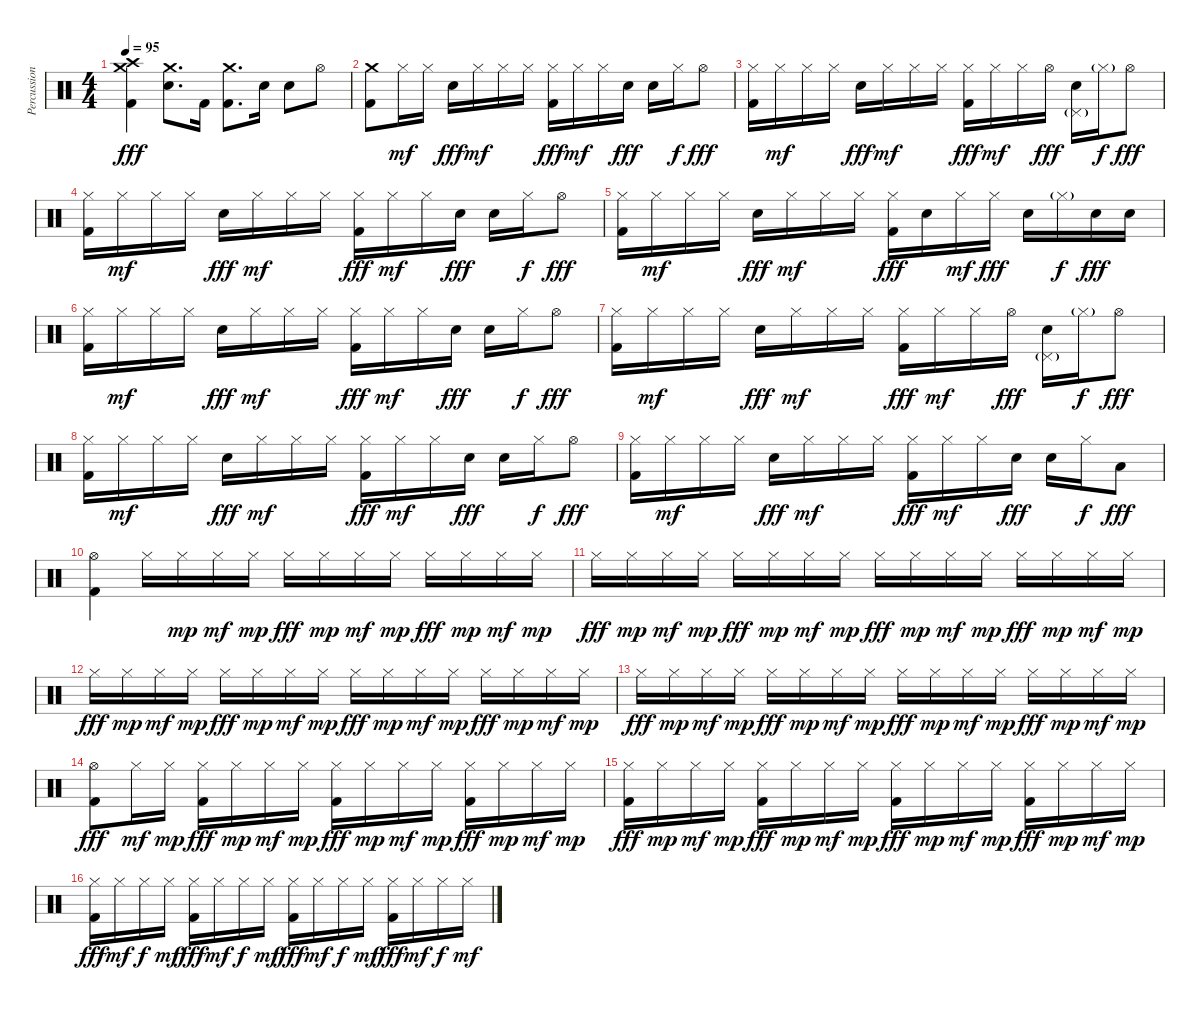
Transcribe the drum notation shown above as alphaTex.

\track ("Percussion" "Percussion") {instrument percussion}
\staff {score}
\articulation defaults
\ts (4 4)
\tempo 95
\clef neutral
\ks c
("Crash high (hit)" "Crash medium (hit)" "Kick (hit) 2").4{dy fff} ("Crash medium (hit)" "Electric Snare (hit)").8{d} "Kick (hit) 2".16 ("Crash medium (hit)" "Kick (hit) 2").8{d} "Electric Snare (hit)".16 "Electric Snare (hit)".8 "Hi-Hat (open)".8 |
("Crash medium (hit)" "Kick (hit) 2").8 "Hi-Hat (closed)".16{dy mf} "Hi-Hat (closed)".16 "Electric Snare (hit)".16{dy fff} "Hi-Hat (closed)".16{dy mf} "Hi-Hat (closed)".16 "Hi-Hat (closed)".16 ("Hi-Hat (closed)" "Kick (hit) 2").16{dy fff} "Hi-Hat (closed)".16{dy mf} "Hi-Hat (closed)".16 "Electric Snare (hit)".16{dy fff} "Electric Snare (hit)".16 "Hi-Hat (closed)".16{dy f} "Hi-Hat (open)".8{dy fff} |
("Hi-Hat (closed)" "Kick (hit) 2").16 "Hi-Hat (closed)".16{dy mf} "Hi-Hat (closed)".16 "Hi-Hat (closed)".16 "Electric Snare (hit)".16{dy fff} "Hi-Hat (closed)".16{dy mf} "Hi-Hat (closed)".16 "Hi-Hat (closed)".16 ("Hi-Hat (closed)" "Kick (hit) 2").16{dy fff} "Hi-Hat (closed)".16{dy mf} "Hi-Hat (closed)".16 "Hi-Hat (open)".16{dy fff} ("Pedal Hi-Hat (hit)"{g} "Electric Snare (hit)").16 "Hi-Hat (closed)"{g}.16{dy f} "Hi-Hat (open)".8{dy fff} |
("Hi-Hat (closed)" "Kick (hit) 2").16 "Hi-Hat (closed)".16{dy mf} "Hi-Hat (closed)".16 "Hi-Hat (closed)".16 "Electric Snare (hit)".16{dy fff} "Hi-Hat (closed)".16{dy mf} "Hi-Hat (closed)".16 "Hi-Hat (closed)".16 ("Hi-Hat (closed)" "Kick (hit) 2").16{dy fff} "Hi-Hat (closed)".16{dy mf} "Hi-Hat (closed)".16 "Electric Snare (hit)".16{dy fff} "Electric Snare (hit)".16 "Hi-Hat (closed)".16{dy f} "Hi-Hat (open)".8{dy fff} |
("Hi-Hat (closed)" "Kick (hit) 2").16 "Hi-Hat (closed)".16{dy mf} "Hi-Hat (closed)".16 "Hi-Hat (closed)".16 "Electric Snare (hit)".16{dy fff} "Hi-Hat (closed)".16{dy mf} "Hi-Hat (closed)".16 "Hi-Hat (closed)".16 ("Hi-Hat (closed)" "Kick (hit) 2").16{dy fff} "Electric Snare (hit)".16 "Hi-Hat (closed)".16{dy mf} "Hi-Hat (closed)".16{dy fff} "Electric Snare (hit)".16 "Hi-Hat (closed)"{g}.16{dy f} "Electric Snare (hit)".16{dy fff} "Electric Snare (hit)".16 |
("Hi-Hat (closed)" "Kick (hit) 2").16 "Hi-Hat (closed)".16{dy mf} "Hi-Hat (closed)".16 "Hi-Hat (closed)".16 "Electric Snare (hit)".16{dy fff} "Hi-Hat (closed)".16{dy mf} "Hi-Hat (closed)".16 "Hi-Hat (closed)".16 ("Hi-Hat (closed)" "Kick (hit) 2").16{dy fff} "Hi-Hat (closed)".16{dy mf} "Hi-Hat (closed)".16 "Electric Snare (hit)".16{dy fff} "Electric Snare (hit)".16 "Hi-Hat (closed)".16{dy f} "Hi-Hat (open)".8{dy fff} |
("Hi-Hat (closed)" "Kick (hit) 2").16 "Hi-Hat (closed)".16{dy mf} "Hi-Hat (closed)".16 "Hi-Hat (closed)".16 "Electric Snare (hit)".16{dy fff} "Hi-Hat (closed)".16{dy mf} "Hi-Hat (closed)".16 "Hi-Hat (closed)".16 ("Hi-Hat (closed)" "Kick (hit) 2").16{dy fff} "Hi-Hat (closed)".16{dy mf} "Hi-Hat (closed)".16 "Hi-Hat (open)".16{dy fff} ("Pedal Hi-Hat (hit)"{g} "Electric Snare (hit)").16 "Hi-Hat (closed)"{g}.16{dy f} "Hi-Hat (open)".8{dy fff} |
("Hi-Hat (closed)" "Kick (hit) 2").16 "Hi-Hat (closed)".16{dy mf} "Hi-Hat (closed)".16 "Hi-Hat (closed)".16 "Electric Snare (hit)".16{dy fff} "Hi-Hat (closed)".16{dy mf} "Hi-Hat (closed)".16 "Hi-Hat (closed)".16 ("Hi-Hat (closed)" "Kick (hit) 2").16{dy fff} "Hi-Hat (closed)".16{dy mf} "Hi-Hat (closed)".16 "Electric Snare (hit)".16{dy fff} "Electric Snare (hit)".16 "Hi-Hat (closed)".16{dy f} "Hi-Hat (open)".8{dy fff} |
("Hi-Hat (closed)" "Kick (hit) 2").16 "Hi-Hat (closed)".16{dy mf} "Hi-Hat (closed)".16 "Hi-Hat (closed)".16 "Electric Snare (hit)".16{dy fff} "Hi-Hat (closed)".16{dy mf} "Hi-Hat (closed)".16 "Hi-Hat (closed)".16 ("Hi-Hat (closed)" "Kick (hit) 2").16{dy fff} "Hi-Hat (closed)".16{dy mf} "Hi-Hat (closed)".16 "Electric Snare (hit)".16{dy fff} "Electric Snare (hit)".16 "Hi-Hat (closed)".16{dy f} "Low Tom (hit)".8{dy fff} |
("Hi-Hat (open)" "Kick (hit) 2").4 "Hi-Hat (closed)".16 "Hi-Hat (closed)".16{dy mp} "Hi-Hat (closed)".16{dy mf} "Hi-Hat (closed)".16{dy mp} "Hi-Hat (closed)".16{dy fff} "Hi-Hat (closed)".16{dy mp} "Hi-Hat (closed)".16{dy mf} "Hi-Hat (closed)".16{dy mp} "Hi-Hat (closed)".16{dy fff} "Hi-Hat (closed)".16{dy mp} "Hi-Hat (closed)".16{dy mf} "Hi-Hat (closed)".16{dy mp} |
"Hi-Hat (closed)".16{dy fff} "Hi-Hat (closed)".16{dy mp} "Hi-Hat (closed)".16{dy mf} "Hi-Hat (closed)".16{dy mp} "Hi-Hat (closed)".16{dy fff} "Hi-Hat (closed)".16{dy mp} "Hi-Hat (closed)".16{dy mf} "Hi-Hat (closed)".16{dy mp} "Hi-Hat (closed)".16{dy fff} "Hi-Hat (closed)".16{dy mp} "Hi-Hat (closed)".16{dy mf} "Hi-Hat (closed)".16{dy mp} "Hi-Hat (closed)".16{dy fff} "Hi-Hat (closed)".16{dy mp} "Hi-Hat (closed)".16{dy mf} "Hi-Hat (closed)".16{dy mp} |
"Hi-Hat (closed)".16{dy fff} "Hi-Hat (closed)".16{dy mp} "Hi-Hat (closed)".16{dy mf} "Hi-Hat (closed)".16{dy mp} "Hi-Hat (closed)".16{dy fff} "Hi-Hat (closed)".16{dy mp} "Hi-Hat (closed)".16{dy mf} "Hi-Hat (closed)".16{dy mp} "Hi-Hat (closed)".16{dy fff} "Hi-Hat (closed)".16{dy mp} "Hi-Hat (closed)".16{dy mf} "Hi-Hat (closed)".16{dy mp} "Hi-Hat (closed)".16{dy fff} "Hi-Hat (closed)".16{dy mp} "Hi-Hat (closed)".16{dy mf} "Hi-Hat (closed)".16{dy mp} |
"Hi-Hat (closed)".16{dy fff} "Hi-Hat (closed)".16{dy mp} "Hi-Hat (closed)".16{dy mf} "Hi-Hat (closed)".16{dy mp} "Hi-Hat (closed)".16{dy fff} "Hi-Hat (closed)".16{dy mp} "Hi-Hat (closed)".16{dy mf} "Hi-Hat (closed)".16{dy mp} "Hi-Hat (closed)".16{dy fff} "Hi-Hat (closed)".16{dy mp} "Hi-Hat (closed)".16{dy mf} "Hi-Hat (closed)".16{dy mp} "Hi-Hat (closed)".16{dy fff} "Hi-Hat (closed)".16{dy mp} "Hi-Hat (closed)".16{dy mf} "Hi-Hat (closed)".16{dy mp} |
("Hi-Hat (open)" "Kick (hit) 2").8{dy fff} "Hi-Hat (closed)".16{dy mf} "Hi-Hat (closed)".16{dy mp} ("Hi-Hat (closed)" "Kick (hit) 2").16{dy fff} "Hi-Hat (closed)".16{dy mp} "Hi-Hat (closed)".16{dy mf} "Hi-Hat (closed)".16{dy mp} ("Hi-Hat (closed)" "Kick (hit) 2").16{dy fff} "Hi-Hat (closed)".16{dy mp} "Hi-Hat (closed)".16{dy mf} "Hi-Hat (closed)".16{dy mp} ("Hi-Hat (closed)" "Kick (hit) 2").16{dy fff} "Hi-Hat (closed)".16{dy mp} "Hi-Hat (closed)".16{dy mf} "Hi-Hat (closed)".16{dy mp} |
("Hi-Hat (closed)" "Kick (hit) 2").16{dy fff} "Hi-Hat (closed)".16{dy mp} "Hi-Hat (closed)".16{dy mf} "Hi-Hat (closed)".16{dy mp} ("Hi-Hat (closed)" "Kick (hit) 2").16{dy fff} "Hi-Hat (closed)".16{dy mp} "Hi-Hat (closed)".16{dy mf} "Hi-Hat (closed)".16{dy mp} ("Hi-Hat (closed)" "Kick (hit) 2").16{dy fff} "Hi-Hat (closed)".16{dy mp} "Hi-Hat (closed)".16{dy mf} "Hi-Hat (closed)".16{dy mp} ("Hi-Hat (closed)" "Kick (hit) 2").16{dy fff} "Hi-Hat (closed)".16{dy mp} "Hi-Hat (closed)".16{dy mf} "Hi-Hat (closed)".16{dy mp} |
("Hi-Hat (closed)" "Kick (hit) 2").16{dy fff} "Hi-Hat (closed)".16{dy mf} "Hi-Hat (closed)".16{dy f} "Hi-Hat (closed)".16{dy mf} ("Hi-Hat (closed)" "Kick (hit) 2").16{dy fff} "Hi-Hat (closed)".16{dy mf} "Hi-Hat (closed)".16{dy f} "Hi-Hat (closed)".16{dy mf} ("Hi-Hat (closed)" "Kick (hit) 2").16{dy fff} "Hi-Hat (closed)".16{dy mf} "Hi-Hat (closed)".16{dy f} "Hi-Hat (closed)".16{dy mf} ("Hi-Hat (closed)" "Kick (hit) 2").16{dy fff} "Hi-Hat (closed)".16{dy mf} "Hi-Hat (closed)".16{dy f} "Hi-Hat (closed)".16{dy mf}
